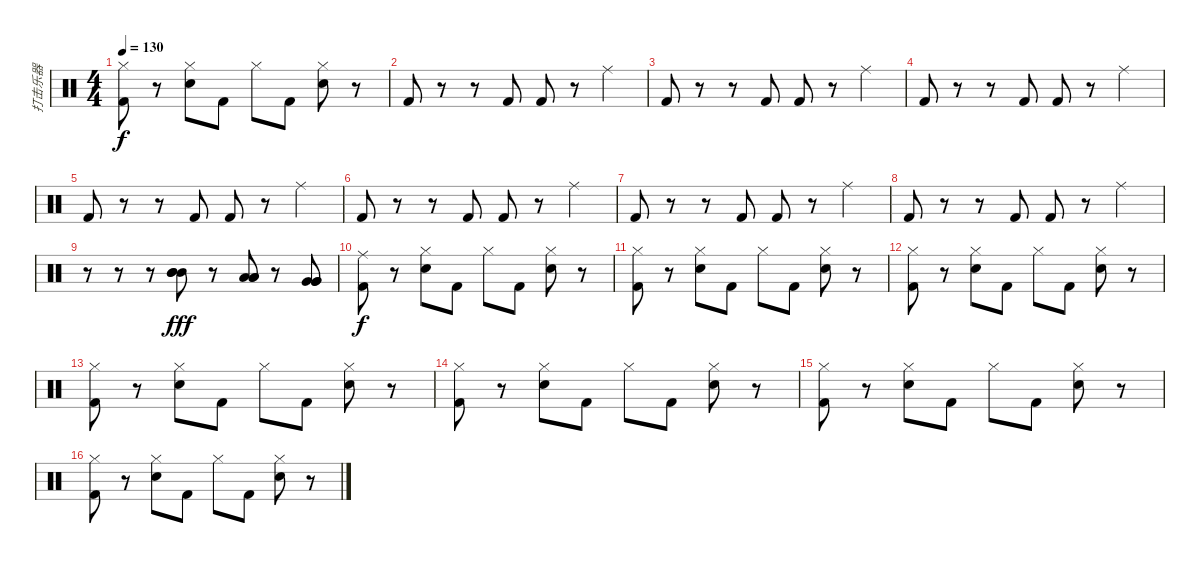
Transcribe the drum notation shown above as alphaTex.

\track ("打击乐器" "打击乐器") {instrument percussion}
\staff {score}
\articulation defaults
\ts (4 4)
\tempo 130
\clef neutral
\ks c
("Hi-Hat (closed)" "Kick (hit) 2").8{dy f} r.8 ("Hi-Hat (closed)" "Electric Snare (hit)").8 "Kick (hit) 2".8 "Hi-Hat (closed)".8 "Kick (hit) 2".8 ("Hi-Hat (closed)" "Electric Snare (hit)").8 r.8 |
"Kick (hit) 2".8 r.8 r.8 "Kick (hit) 2".8 "Kick (hit) 2".8 r.8 "Ride (middle)".4 |
"Kick (hit) 2".8 r.8 r.8 "Kick (hit) 2".8 "Kick (hit) 2".8 r.8 "Ride (middle)".4 |
"Kick (hit) 2".8 r.8 r.8 "Kick (hit) 2".8 "Kick (hit) 2".8 r.8 "Ride (middle)".4 |
"Kick (hit) 2".8 r.8 r.8 "Kick (hit) 2".8 "Kick (hit) 2".8 r.8 "Ride (middle)".4 |
"Kick (hit) 2".8 r.8 r.8 "Kick (hit) 2".8 "Kick (hit) 2".8 r.8 "Ride (middle)".4 |
"Kick (hit) 2".8 r.8 r.8 "Kick (hit) 2".8 "Kick (hit) 2".8 r.8 "Ride (middle)".4 |
"Kick (hit) 2".8 r.8 r.8 "Kick (hit) 2".8 "Kick (hit) 2".8 r.8 "Ride (middle)".4 |
r.8 r.8 r.8 ("Mid Tom (hit)" "Mid Tom (hit)" "Mid Tom (hit)").8{dy fff} r.8 ("Low Tom (hit)" "Low Tom (hit)" "Low Tom (hit)").8 r.8 ("Very Low Tom (hit)" "Very Low Tom (hit)" "Very Low Tom (hit)").8 |
("Ride (middle)" "Kick (hit) 2").8{dy f} r.8 ("Hi-Hat (closed)" "Electric Snare (hit)").8 "Kick (hit) 2".8 "Hi-Hat (closed)".8 "Kick (hit) 2".8 ("Hi-Hat (closed)" "Electric Snare (hit)").8 r.8 |
("Hi-Hat (closed)" "Kick (hit) 2").8 r.8 ("Hi-Hat (closed)" "Electric Snare (hit)").8 "Kick (hit) 2".8 "Hi-Hat (closed)".8 "Kick (hit) 2".8 ("Hi-Hat (closed)" "Electric Snare (hit)").8 r.8 |
("Hi-Hat (closed)" "Kick (hit) 2").8 r.8 ("Hi-Hat (closed)" "Electric Snare (hit)").8 "Kick (hit) 2".8 "Hi-Hat (closed)".8 "Kick (hit) 2".8 ("Hi-Hat (closed)" "Electric Snare (hit)").8 r.8 |
("Hi-Hat (closed)" "Kick (hit) 2").8 r.8 ("Hi-Hat (closed)" "Electric Snare (hit)").8 "Kick (hit) 2".8 "Hi-Hat (closed)".8 "Kick (hit) 2".8 ("Hi-Hat (closed)" "Electric Snare (hit)").8 r.8 |
("Hi-Hat (closed)" "Kick (hit) 2").8 r.8 ("Hi-Hat (closed)" "Electric Snare (hit)").8 "Kick (hit) 2".8 "Hi-Hat (closed)".8 "Kick (hit) 2".8 ("Hi-Hat (closed)" "Electric Snare (hit)").8 r.8 |
("Hi-Hat (closed)" "Kick (hit) 2").8 r.8 ("Hi-Hat (closed)" "Electric Snare (hit)").8 "Kick (hit) 2".8 "Hi-Hat (closed)".8 "Kick (hit) 2".8 ("Hi-Hat (closed)" "Electric Snare (hit)").8 r.8 |
("Hi-Hat (closed)" "Kick (hit) 2").8 r.8 ("Hi-Hat (closed)" "Electric Snare (hit)").8 "Kick (hit) 2".8 "Hi-Hat (closed)".8 "Kick (hit) 2".8 ("Hi-Hat (closed)" "Electric Snare (hit)").8 r.8
